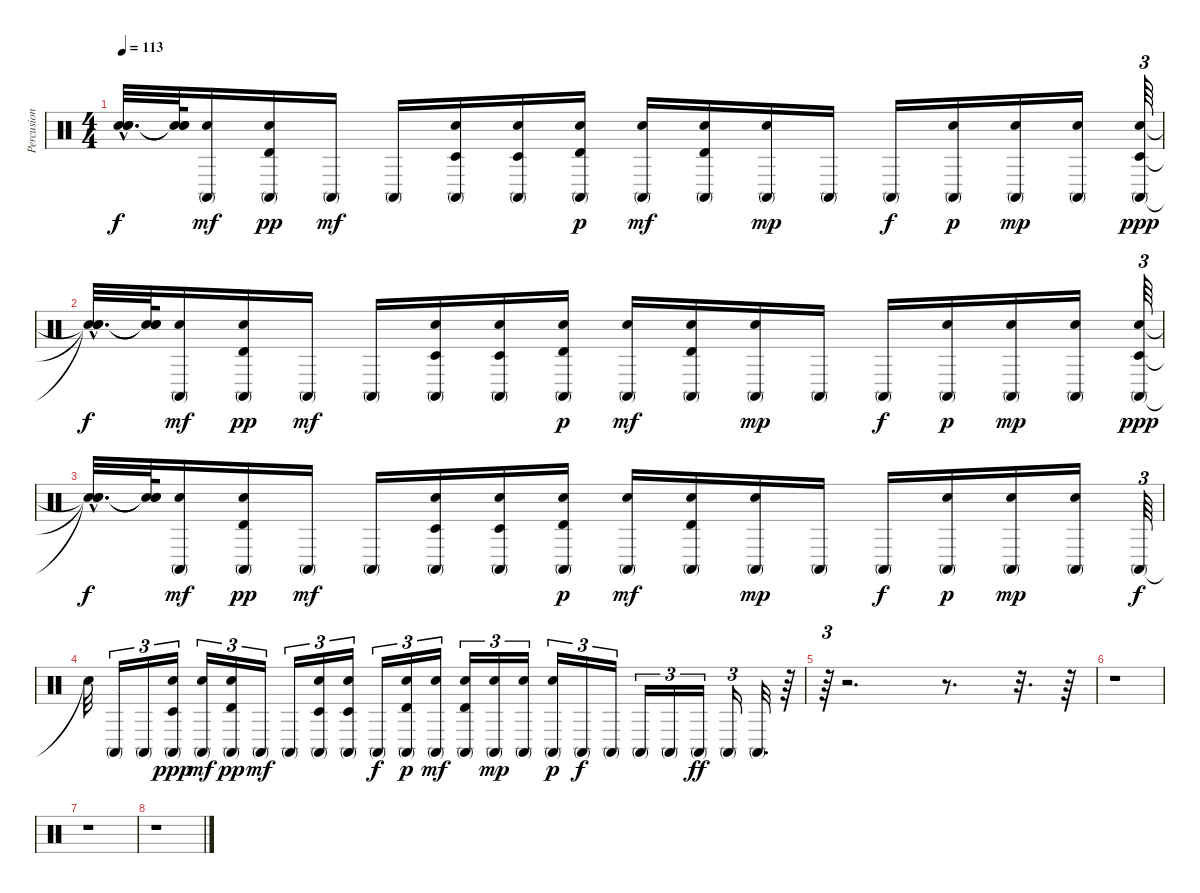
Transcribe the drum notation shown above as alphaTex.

\track ("Percusion" "Percusion") {instrument percussion}
\staff {score}
\articulation defaults
\ts (4 4)
\tempo 113
\clef neutral
\ks c
("Snare (hit)"{hac t} "Snare (hit)"{hac t} "Snare (hit)"{hac t}).32{d dy f} ("Snare (hit)"{t} "Snare (hit)"{t} "Snare (hit)"{t}).64 ("Electric Snare (hit)" "Conga high (mute)").16{dy mf} ("Electric Snare (hit)" "Timbale high (hit)" "Conga high (mute)").16{dy pp} "Conga high (mute)".16{dy mf} "Conga high (mute)".16 ("Electric Snare (hit)" "Timbale low (hit)" "Conga high (mute)").16 ("Electric Snare (hit)" "Timbale low (hit)" "Conga high (mute)").16 ("Electric Snare (hit)" "Timbale high (hit)" "Conga high (mute)").16{dy p} ("Electric Snare (hit)" "Conga high (mute)").16{dy mf} ("Electric Snare (hit)" "Timbale high (hit)" "Conga high (mute)").16 ("Electric Snare (hit)" "Conga high (mute)").16{dy mp} "Conga high (mute)".16 "Conga high (mute)".16{dy f} ("Electric Snare (hit)" "Conga high (mute)").16{dy p} ("Electric Snare (hit)" "Conga high (mute)").16{dy mp} ("Electric Snare (hit)" "Conga high (mute)").16 ("Electric Snare (hit)" "Timbale low (hit)" "Conga high (mute)").64{tu (3 2) dy ppp} |
("Snare (hit)"{hac t} "Snare (hit)"{hac t} "Snare (hit)"{hac t}).32{d dy f} ("Snare (hit)"{t} "Snare (hit)"{t} "Snare (hit)"{t}).64 ("Electric Snare (hit)" "Conga high (mute)").16{dy mf} ("Electric Snare (hit)" "Timbale high (hit)" "Conga high (mute)").16{dy pp} "Conga high (mute)".16{dy mf} "Conga high (mute)".16 ("Electric Snare (hit)" "Timbale low (hit)" "Conga high (mute)").16 ("Electric Snare (hit)" "Timbale low (hit)" "Conga high (mute)").16 ("Electric Snare (hit)" "Timbale high (hit)" "Conga high (mute)").16{dy p} ("Electric Snare (hit)" "Conga high (mute)").16{dy mf} ("Electric Snare (hit)" "Timbale high (hit)" "Conga high (mute)").16 ("Electric Snare (hit)" "Conga high (mute)").16{dy mp} "Conga high (mute)".16 "Conga high (mute)".16{dy f} ("Electric Snare (hit)" "Conga high (mute)").16{dy p} ("Electric Snare (hit)" "Conga high (mute)").16{dy mp} ("Electric Snare (hit)" "Conga high (mute)").16 ("Electric Snare (hit)" "Timbale low (hit)" "Conga high (mute)").64{tu (3 2) dy ppp} |
("Snare (hit)"{hac t} "Snare (hit)"{hac t} "Snare (hit)"{hac t}).32{d dy f} ("Snare (hit)"{t} "Snare (hit)"{t} "Snare (hit)"{t}).64 ("Electric Snare (hit)" "Conga high (mute)").16{dy mf} ("Electric Snare (hit)" "Timbale high (hit)" "Conga high (mute)").16{dy pp} "Conga high (mute)".16{dy mf} "Conga high (mute)".16 ("Electric Snare (hit)" "Timbale low (hit)" "Conga high (mute)").16 ("Electric Snare (hit)" "Timbale low (hit)" "Conga high (mute)").16 ("Electric Snare (hit)" "Timbale high (hit)" "Conga high (mute)").16{dy p} ("Electric Snare (hit)" "Conga high (mute)").16{dy mf} ("Electric Snare (hit)" "Timbale high (hit)" "Conga high (mute)").16 ("Electric Snare (hit)" "Conga high (mute)").16{dy mp} "Conga high (mute)".16 "Conga high (mute)".16{dy f} ("Electric Snare (hit)" "Conga high (mute)").16{dy p} ("Electric Snare (hit)" "Conga high (mute)").16{dy mp} ("Electric Snare (hit)" "Conga high (mute)").16 "Conga high (mute)".64{tu (3 2) dy f} |
"Snare (hit)"{t}.32 "Conga high (mute)".16{tu (3 2)} "Conga high (mute)".16{tu (3 2)} ("Electric Snare (hit)" "Timbale low (hit)" "Conga high (mute)").16{tu (3 2) dy ppp} ("Electric Snare (hit)" "Conga high (mute)").16{tu (3 2) dy mf} ("Electric Snare (hit)" "Timbale high (hit)" "Conga high (mute)").16{tu (3 2) dy pp} "Conga high (mute)".16{tu (3 2) dy mf} "Conga high (mute)".16{tu (3 2)} ("Electric Snare (hit)" "Timbale low (hit)" "Conga high (mute)").16{tu (3 2)} ("Electric Snare (hit)" "Timbale low (hit)" "Conga high (mute)").16{tu (3 2)} "Conga high (mute)".16{tu (3 2) dy f} ("Electric Snare (hit)" "Timbale high (hit)" "Conga high (mute)").16{tu (3 2) dy p} ("Electric Snare (hit)" "Conga high (mute)").16{tu (3 2) dy mf} ("Electric Snare (hit)" "Timbale high (hit)" "Conga high (mute)").16{tu (3 2)} ("Electric Snare (hit)" "Conga high (mute)").16{tu (3 2) dy mp} ("Electric Snare (hit)" "Conga high (mute)").16{tu (3 2)} ("Electric Snare (hit)" "Conga high (mute)").16{tu (3 2) dy p} "Conga high (mute)".16{tu (3 2) dy f} "Conga high (mute)".16{tu (3 2)} "Conga high (mute)".16{tu (3 2)} "Conga high (mute)".16{tu (3 2)} "Conga high (mute)".16{tu (3 2) dy ff} "Conga high (mute)".16{tu (3 2)} "Conga high (mute)".32{d} r.64 |
r.64{tu (3 2)} r.2{d} r.8{d} r.32{d} r.64 |
r.1 |
r.1 |
r.1
